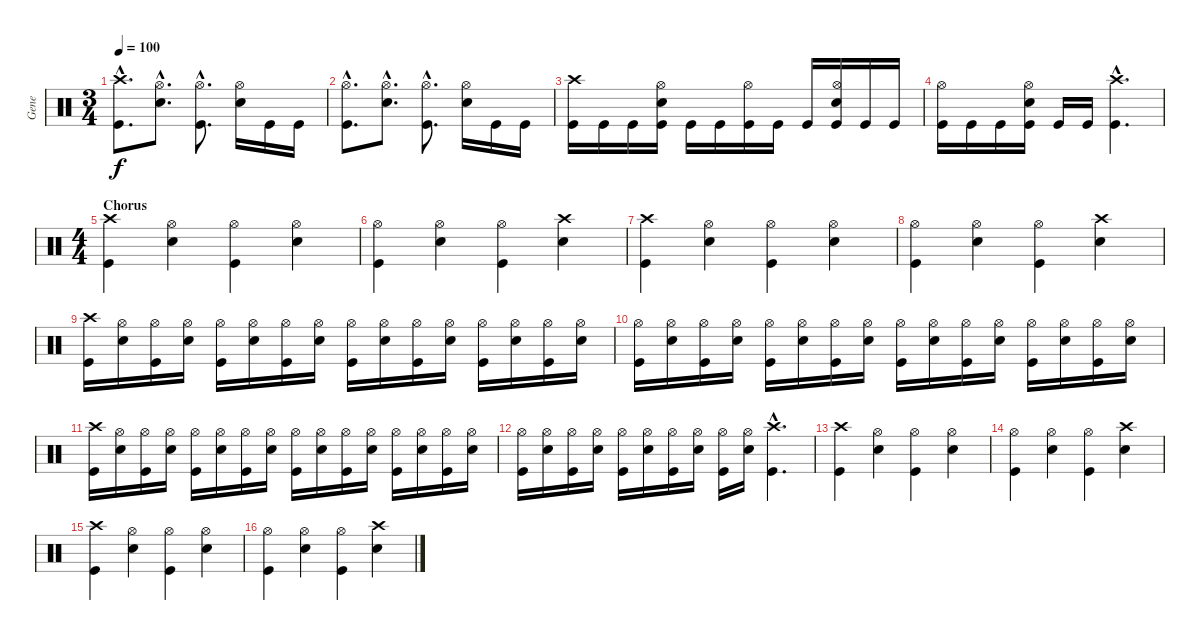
\track ("Gene" "Gene") {instrument percussion}
\staff {score}
\articulation defaults
\ts (3 4)
\tempo 100
\clef neutral
\ks c
("Crash high (hit)"{hac} "Kick (hit)"{hac}).8{d dy f} ("Hi-Hat (open)"{hac} "Snare (hit) 2"{hac}).8{d} ("Hi-Hat (open)"{hac} "Kick (hit)"{hac}).8{d} ("Hi-Hat (open)" "Snare (hit) 2").16 "Kick (hit)".16 "Kick (hit)".16 |
("Hi-Hat (open)"{hac} "Kick (hit)"{hac}).8{d} ("Hi-Hat (open)"{hac} "Snare (hit) 2"{hac}).8{d} ("Hi-Hat (open)"{hac} "Kick (hit)"{hac}).8{d} ("Hi-Hat (open)" "Snare (hit) 2").16 "Kick (hit)".16 "Kick (hit)".16 |
("Crash high (hit)" "Kick (hit)").16 "Kick (hit)".16 "Kick (hit)".16 ("Hi-Hat (open)" "Snare (hit) 2" "Kick (hit)").16 "Kick (hit)".16 "Kick (hit)".16 ("Hi-Hat (open)" "Kick (hit)").16 "Kick (hit)".16 "Kick (hit)".16 ("Hi-Hat (open)" "Snare (hit) 2" "Kick (hit)").16 "Kick (hit)".16 "Kick (hit)".16 |
("Hi-Hat (open)" "Kick (hit)").16 "Kick (hit)".16 "Kick (hit)".16 ("Hi-Hat (open)" "Snare (hit) 2" "Kick (hit)").16 "Kick (hit)".16 "Kick (hit)".16 ("Crash high (hit)"{hac} "Kick (hit)"{hac}).4{d} |
\ts (4 4)
\section ("" "Chorus")
("Crash high (hit)" "Kick (hit)").4 ("Hi-Hat (open)" "Snare (hit) 2").4 ("Hi-Hat (open)" "Kick (hit)").4 ("Hi-Hat (open)" "Snare (hit) 2").4 |
("Hi-Hat (open)" "Kick (hit)").4 ("Hi-Hat (open)" "Snare (hit) 2").4 ("Hi-Hat (open)" "Kick (hit)").4 ("Crash high (hit)" "Snare (hit) 2").4 |
("Crash high (hit)" "Kick (hit)").4 ("Hi-Hat (open)" "Snare (hit) 2").4 ("Hi-Hat (open)" "Kick (hit)").4 ("Hi-Hat (open)" "Snare (hit) 2").4 |
("Hi-Hat (open)" "Kick (hit)").4 ("Hi-Hat (open)" "Snare (hit) 2").4 ("Hi-Hat (open)" "Kick (hit)").4 ("Crash high (hit)" "Snare (hit) 2").4 |
("Crash high (hit)" "Kick (hit)").16 ("Hi-Hat (open)" "Snare (hit) 2").16 ("Hi-Hat (open)" "Kick (hit)").16 ("Hi-Hat (open)" "Snare (hit) 2").16 ("Hi-Hat (open)" "Kick (hit)").16 ("Hi-Hat (open)" "Snare (hit) 2").16 ("Hi-Hat (open)" "Kick (hit)").16 ("Hi-Hat (open)" "Snare (hit) 2").16 ("Hi-Hat (open)" "Kick (hit)").16 ("Hi-Hat (open)" "Snare (hit) 2").16 ("Hi-Hat (open)" "Kick (hit)").16 ("Hi-Hat (open)" "Snare (hit) 2").16 ("Hi-Hat (open)" "Kick (hit)").16 ("Hi-Hat (open)" "Snare (hit) 2").16 ("Hi-Hat (open)" "Kick (hit)").16 ("Hi-Hat (open)" "Snare (hit) 2").16 |
("Hi-Hat (open)" "Kick (hit)").16 ("Hi-Hat (open)" "Snare (hit) 2").16 ("Hi-Hat (open)" "Kick (hit)").16 ("Hi-Hat (open)" "Snare (hit) 2").16 ("Hi-Hat (open)" "Kick (hit)").16 ("Hi-Hat (open)" "Snare (hit) 2").16 ("Hi-Hat (open)" "Kick (hit)").16 ("Hi-Hat (open)" "Snare (hit) 2").16 ("Hi-Hat (open)" "Kick (hit)").16 ("Hi-Hat (open)" "Snare (hit) 2").16 ("Hi-Hat (open)" "Kick (hit)").16 ("Hi-Hat (open)" "Snare (hit) 2").16 ("Hi-Hat (open)" "Kick (hit)").16 ("Hi-Hat (open)" "Snare (hit) 2").16 ("Hi-Hat (open)" "Kick (hit)").16 ("Hi-Hat (open)" "Snare (hit) 2").16 |
("Crash high (hit)" "Kick (hit)").16 ("Hi-Hat (open)" "Snare (hit) 2").16 ("Hi-Hat (open)" "Kick (hit)").16 ("Hi-Hat (open)" "Snare (hit) 2").16 ("Hi-Hat (open)" "Kick (hit)").16 ("Hi-Hat (open)" "Snare (hit) 2").16 ("Hi-Hat (open)" "Kick (hit)").16 ("Hi-Hat (open)" "Snare (hit) 2").16 ("Hi-Hat (open)" "Kick (hit)").16 ("Hi-Hat (open)" "Snare (hit) 2").16 ("Hi-Hat (open)" "Kick (hit)").16 ("Hi-Hat (open)" "Snare (hit) 2").16 ("Hi-Hat (open)" "Kick (hit)").16 ("Hi-Hat (open)" "Snare (hit) 2").16 ("Hi-Hat (open)" "Kick (hit)").16 ("Hi-Hat (open)" "Snare (hit) 2").16 |
("Hi-Hat (open)" "Kick (hit)").16 ("Hi-Hat (open)" "Snare (hit) 2").16 ("Hi-Hat (open)" "Kick (hit)").16 ("Hi-Hat (open)" "Snare (hit) 2").16 ("Hi-Hat (open)" "Kick (hit)").16 ("Hi-Hat (open)" "Snare (hit) 2").16 ("Hi-Hat (open)" "Kick (hit)").16 ("Hi-Hat (open)" "Snare (hit) 2").16 ("Hi-Hat (open)" "Kick (hit)").16 ("Hi-Hat (open)" "Snare (hit) 2").16 ("Crash high (hit)"{hac} "Kick (hit)"{hac}).4{d} |
("Crash high (hit)" "Kick (hit)").4 ("Hi-Hat (open)" "Snare (hit) 2").4 ("Hi-Hat (open)" "Kick (hit)").4 ("Hi-Hat (open)" "Snare (hit) 2").4 |
("Hi-Hat (open)" "Kick (hit)").4 ("Hi-Hat (open)" "Snare (hit) 2").4 ("Hi-Hat (open)" "Kick (hit)").4 ("Crash high (hit)" "Snare (hit) 2").4 |
("Crash high (hit)" "Kick (hit)").4 ("Hi-Hat (open)" "Snare (hit) 2").4 ("Hi-Hat (open)" "Kick (hit)").4 ("Hi-Hat (open)" "Snare (hit) 2").4 |
("Hi-Hat (open)" "Kick (hit)").4 ("Hi-Hat (open)" "Snare (hit) 2").4 ("Hi-Hat (open)" "Kick (hit)").4 ("Crash high (hit)" "Snare (hit) 2").4
